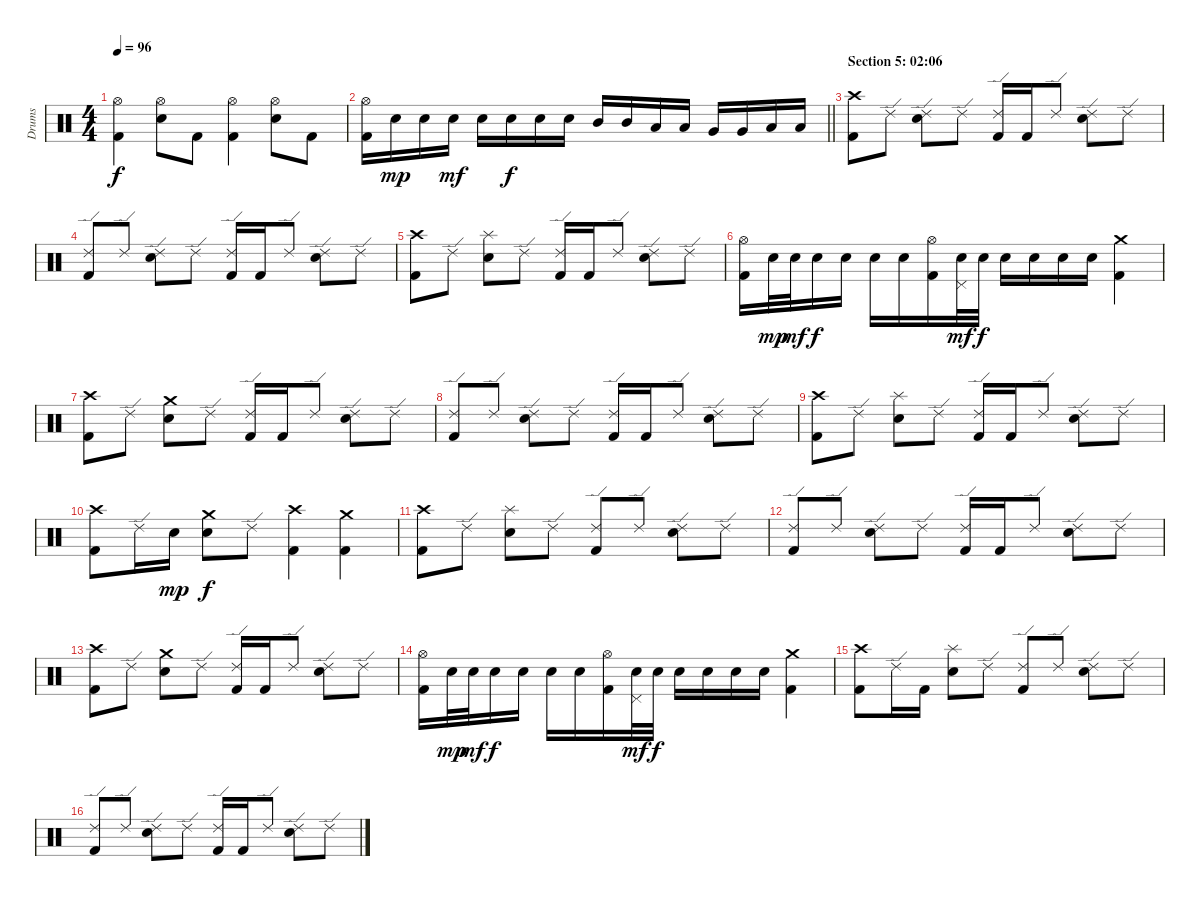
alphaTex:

\track ("Drums" "Drums") {instrument percussion}
\staff {score}
\articulation defaults
\ts (4 4)
\tempo 96
\clef neutral
\ks c
("Hi-Hat (open)" "Kick (hit) 2").4{dy f} ("Hi-Hat (open)" "Electric Snare (hit)").8 "Kick (hit) 2".8 ("Hi-Hat (open)" "Kick (hit) 2").4 ("Hi-Hat (open)" "Electric Snare (hit)").8 "Kick (hit) 2".8 |
\barLineRight lightlight
("Hi-Hat (open)" "Kick (hit) 2").16 "Electric Snare (hit)".16{dy mp} "Electric Snare (hit)".16 "Electric Snare (hit)".16{dy mf} "Electric Snare (hit)".16 "Electric Snare (hit)".16{dy f} "Electric Snare (hit)".16 "Electric Snare (hit)".16 "Mid Tom (hit)".16 "Mid Tom (hit)".16 "Low Tom (hit)".16 "Low Tom (hit)".16 "Very Low Tom (hit)".16 "Very Low Tom (hit)".16 "Low Floor Tom (hit)".16 "Low Floor Tom (hit)".16 |
\section ("" "Section 5: 02:06")
("Crash high (hit)" "Kick (hit) 2").8 "Ride (edge) 2".8 ("Ride (edge) 2" "Electric Snare (hit)").8 "Ride (edge) 2".8 ("Ride (edge) 2" "Kick (hit) 2").16 "Kick (hit) 2".16 "Ride (edge) 2".8 ("Ride (edge) 2" "Electric Snare (hit)").8 "Ride (edge) 2".8 |
("Ride (edge) 2" "Kick (hit) 2").8 "Ride (edge) 2".8 ("Ride (edge) 2" "Electric Snare (hit)").8 "Ride (edge) 2".8 ("Ride (edge) 2" "Kick (hit) 2").16 "Kick (hit) 2".16 "Ride (edge) 2".8 ("Ride (edge) 2" "Electric Snare (hit)").8 "Ride (edge) 2".8 |
("Crash high (hit)" "Kick (hit) 2").8 "Ride (edge) 2".8 ("Splash (hit)" "Electric Snare (hit)").8 "Ride (edge) 2".8 ("Ride (edge) 2" "Kick (hit) 2").16 "Kick (hit) 2".16 "Ride (edge) 2".8 ("Ride (edge) 2" "Electric Snare (hit)").8 "Ride (edge) 2".8 |
("Hi-Hat (open)" "Kick (hit) 2").16 "Electric Snare (hit)".32{dy mp} "Electric Snare (hit)".32{dy mf} "Electric Snare (hit)".16{dy f} "Electric Snare (hit)".16 "Electric Snare (hit)".16 "Electric Snare (hit)".16 ("Hi-Hat (open)" "Kick (hit) 2").16 ("Pedal Hi-Hat (hit)" "Electric Snare (hit)").32{dy mf} "Electric Snare (hit)".32{dy f} "Electric Snare (hit)".16 "Electric Snare (hit)".16 "Electric Snare (hit)".16 "Electric Snare (hit)".16 ("Crash medium (hit)" "Kick (hit) 2").4 |
("Crash high (hit)" "Kick (hit) 2").8 "Ride (edge) 2".8 ("Crash medium (hit)" "Electric Snare (hit)").8 "Ride (edge) 2".8 ("Ride (edge) 2" "Kick (hit) 2").16 "Kick (hit) 2".16 "Ride (edge) 2".8 ("Ride (edge) 2" "Electric Snare (hit)").8 "Ride (edge) 2".8 |
("Ride (edge) 2" "Kick (hit) 2").8 "Ride (edge) 2".8 ("Ride (edge) 2" "Electric Snare (hit)").8 "Ride (edge) 2".8 ("Ride (edge) 2" "Kick (hit) 2").16 "Kick (hit) 2".16 "Ride (edge) 2".8 ("Ride (edge) 2" "Electric Snare (hit)").8 "Ride (edge) 2".8 |
("Crash high (hit)" "Kick (hit) 2").8 "Ride (edge) 2".8 ("Splash (hit)" "Electric Snare (hit)").8 "Ride (edge) 2".8 ("Ride (edge) 2" "Kick (hit) 2").16 "Kick (hit) 2".16 "Ride (edge) 2".8 ("Ride (edge) 2" "Electric Snare (hit)").8 "Ride (edge) 2".8 |
("Crash high (hit)" "Kick (hit) 2").8 "Ride (edge) 2".16 "Electric Snare (hit)".16{dy mp} ("Crash medium (hit)" "Electric Snare (hit)").8{dy f} "Ride (edge) 2".8 ("Crash high (hit)" "Kick (hit) 2").4 ("Crash medium (hit)" "Kick (hit) 2").4 |
("Crash high (hit)" "Kick (hit) 2").8 "Ride (edge) 2".8 ("Splash (hit)" "Electric Snare (hit)").8 "Ride (edge) 2".8 ("Ride (edge) 2" "Kick (hit) 2").8 "Ride (edge) 2".8 ("Ride (edge) 2" "Electric Snare (hit)").8 "Ride (edge) 2".8 |
("Ride (edge) 2" "Kick (hit) 2").8 "Ride (edge) 2".8 ("Ride (edge) 2" "Electric Snare (hit)").8 "Ride (edge) 2".8 ("Ride (edge) 2" "Kick (hit) 2").16 "Kick (hit) 2".16 "Ride (edge) 2".8 ("Ride (edge) 2" "Electric Snare (hit)").8 "Ride (edge) 2".8 |
("Crash high (hit)" "Kick (hit) 2").8 "Ride (edge) 2".8 ("Crash medium (hit)" "Electric Snare (hit)").8 "Ride (edge) 2".8 ("Ride (edge) 2" "Kick (hit) 2").16 "Kick (hit) 2".16 "Ride (edge) 2".8 ("Ride (edge) 2" "Electric Snare (hit)").8 "Ride (edge) 2".8 |
("Hi-Hat (open)" "Kick (hit) 2").16 "Electric Snare (hit)".32{dy mp} "Electric Snare (hit)".32{dy mf} "Electric Snare (hit)".16{dy f} "Electric Snare (hit)".16 "Electric Snare (hit)".16 "Electric Snare (hit)".16 ("Hi-Hat (open)" "Kick (hit) 2").16 ("Pedal Hi-Hat (hit)" "Electric Snare (hit)").32{dy mf} "Electric Snare (hit)".32{dy f} "Electric Snare (hit)".16 "Electric Snare (hit)".16 "Electric Snare (hit)".16 "Electric Snare (hit)".16 ("Crash medium (hit)" "Kick (hit) 2").4 |
("Crash high (hit)" "Kick (hit) 2").8 "Ride (edge) 2".16 "Kick (hit) 2".16 ("Splash (hit)" "Electric Snare (hit)").8 "Ride (edge) 2".8 ("Ride (edge) 2" "Kick (hit) 2").8 "Ride (edge) 2".8 ("Ride (edge) 2" "Electric Snare (hit)").8 "Ride (edge) 2".8 |
("Ride (edge) 2" "Kick (hit) 2").8 "Ride (edge) 2".8 ("Ride (edge) 2" "Electric Snare (hit)").8 "Ride (edge) 2".8 ("Ride (edge) 2" "Kick (hit) 2").16 "Kick (hit) 2".16 "Ride (edge) 2".8 ("Ride (edge) 2" "Electric Snare (hit)").8 "Ride (edge) 2".8
